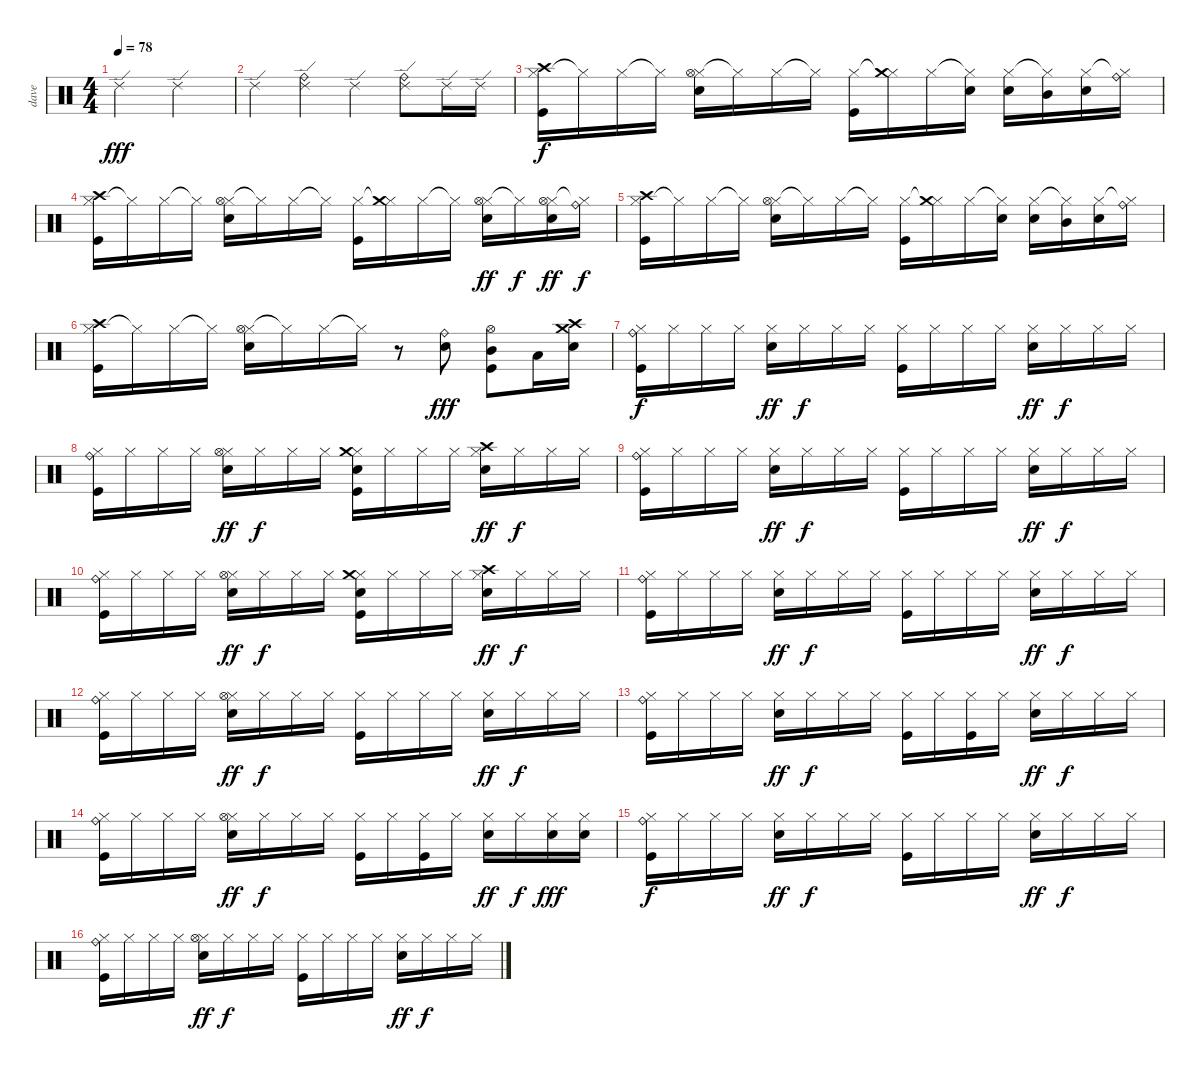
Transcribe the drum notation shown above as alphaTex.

\track ("dave" "dave") {instrument percussion}
\staff {score}
\articulation defaults
\ts (4 4)
\tempo 78
\clef neutral
\ks c "Ride (edge) 2".2{dy fff} "Ride (edge) 2".2
|
"Ride (edge) 2".4 ("Ride (edge) 2" "Ride (bell)").4 "Ride (edge) 2".4 ("Ride (edge) 2" "Ride (bell)").8 "Ride (edge) 2".16 "Ride (edge) 2".16 |
("Hi-Hat (closed)" "Crash high (hit)" "Kick (hit)").16{dy f} "Hi-Hat (closed)"{t}.16 "Hi-Hat (closed)".16 "Hi-Hat (closed)"{t}.16 ("Hi-Hat (closed)" "Hi-Hat (open)" "Snare (hit) 2").16 "Hi-Hat (closed)"{t}.16 "Hi-Hat (closed)".16 "Hi-Hat (closed)"{t}.16 ("Hi-Hat (closed)" "Kick (hit)").16 ("Hi-Hat (closed)"{t} "Crash medium (hit)").16 "Hi-Hat (closed)".16 ("Hi-Hat (closed)"{t} "Snare (hit) 2").16 ("Hi-Hat (closed)" "Snare (hit) 2").16 ("Hi-Hat (closed)"{t} "Mid Tom (hit)").16 ("Hi-Hat (closed)" "Snare (hit) 2").16 ("Hi-Hat (closed)"{t} "Ride (bell)").16 |
("Hi-Hat (closed)" "Crash high (hit)" "Kick (hit)").16 "Hi-Hat (closed)"{t}.16 "Hi-Hat (closed)".16 "Hi-Hat (closed)"{t}.16 ("Hi-Hat (closed)" "Hi-Hat (open)" "Snare (hit) 2").16 "Hi-Hat (closed)"{t}.16 "Hi-Hat (closed)".16 "Hi-Hat (closed)"{t}.16 ("Hi-Hat (closed)" "Kick (hit)").16 ("Hi-Hat (closed)"{t} "Crash medium (hit)").16 "Hi-Hat (closed)".16 "Hi-Hat (closed)"{t}.16 ("Hi-Hat (closed)" "Hi-Hat (open)" "Snare (hit) 2").16{dy ff} "Hi-Hat (closed)"{t}.16{dy f} ("Hi-Hat (closed)" "Hi-Hat (open)" "Snare (hit) 2").16{dy ff} ("Hi-Hat (closed)"{t} "Ride (bell)").16{dy f} |
("Hi-Hat (closed)" "Crash high (hit)" "Kick (hit)").16 "Hi-Hat (closed)"{t}.16 "Hi-Hat (closed)".16 "Hi-Hat (closed)"{t}.16 ("Hi-Hat (closed)" "Hi-Hat (open)" "Snare (hit) 2").16 "Hi-Hat (closed)"{t}.16 "Hi-Hat (closed)".16 "Hi-Hat (closed)"{t}.16 ("Hi-Hat (closed)" "Kick (hit)").16 ("Hi-Hat (closed)"{t} "Crash medium (hit)").16 "Hi-Hat (closed)".16 ("Hi-Hat (closed)"{t} "Snare (hit) 2").16 ("Hi-Hat (closed)" "Snare (hit) 2").16 ("Hi-Hat (closed)"{t} "Mid Tom (hit)").16 ("Hi-Hat (closed)" "Snare (hit) 2").16 ("Hi-Hat (closed)"{t} "Ride (bell)").16 |
("Hi-Hat (closed)" "Crash high (hit)" "Kick (hit)").16 "Hi-Hat (closed)"{t}.16 "Hi-Hat (closed)".16 "Hi-Hat (closed)"{t}.16 ("Hi-Hat (closed)" "Hi-Hat (open)" "Snare (hit) 2").16 "Hi-Hat (closed)"{t}.16 "Hi-Hat (closed)".16 "Hi-Hat (closed)"{t}.16 r.8 ("Electric Snare (hit)" "Ride (bell)").8{dy fff} ("Mid Tom (hit)" "Hi-Hat (open)" "Kick (hit)").8 "Low Tom (hit)".16 ("Snare (hit) 2" "Crash high (hit)" "Crash medium (hit)").16 |
("Hi-Hat (closed)" "Ride (bell)" "Kick (hit)").16{dy f} "Hi-Hat (closed)".16 "Hi-Hat (closed)".16 "Hi-Hat (closed)".16 ("Hi-Hat (closed)" "Snare (hit) 2").16{dy ff} "Hi-Hat (closed)".16{dy f} "Hi-Hat (closed)".16 "Hi-Hat (closed)".16 ("Hi-Hat (closed)" "Kick (hit)").16 "Hi-Hat (closed)".16 "Hi-Hat (closed)".16 "Hi-Hat (closed)".16 ("Hi-Hat (closed)" "Snare (hit) 2").16{dy ff} "Hi-Hat (closed)".16{dy f} "Hi-Hat (closed)".16 "Hi-Hat (closed)".16 |
("Hi-Hat (closed)" "Ride (bell)" "Kick (hit)").16 "Hi-Hat (closed)".16 "Hi-Hat (closed)".16 "Hi-Hat (closed)".16 ("Hi-Hat (closed)" "Hi-Hat (open)" "Snare (hit) 2").16{dy ff} "Hi-Hat (closed)".16{dy f} "Hi-Hat (closed)".16 "Hi-Hat (closed)".16 ("Hi-Hat (closed)" "Crash medium (hit)" "Snare (hit) 2" "Kick (hit)").16 "Hi-Hat (closed)".16 "Hi-Hat (closed)".16 "Hi-Hat (closed)".16 ("Hi-Hat (closed)" "Crash high (hit)" "Snare (hit) 2").16{dy ff} "Hi-Hat (closed)".16{dy f} "Hi-Hat (closed)".16 "Hi-Hat (closed)".16 |
("Hi-Hat (closed)" "Ride (bell)" "Kick (hit)").16 "Hi-Hat (closed)".16 "Hi-Hat (closed)".16 "Hi-Hat (closed)".16 ("Hi-Hat (closed)" "Snare (hit) 2").16{dy ff} "Hi-Hat (closed)".16{dy f} "Hi-Hat (closed)".16 "Hi-Hat (closed)".16 ("Hi-Hat (closed)" "Kick (hit)").16 "Hi-Hat (closed)".16 "Hi-Hat (closed)".16 "Hi-Hat (closed)".16 ("Hi-Hat (closed)" "Snare (hit) 2").16{dy ff} "Hi-Hat (closed)".16{dy f} "Hi-Hat (closed)".16 "Hi-Hat (closed)".16 |
("Hi-Hat (closed)" "Ride (bell)" "Kick (hit)").16 "Hi-Hat (closed)".16 "Hi-Hat (closed)".16 "Hi-Hat (closed)".16 ("Hi-Hat (closed)" "Hi-Hat (open)" "Snare (hit) 2").16{dy ff} "Hi-Hat (closed)".16{dy f} "Hi-Hat (closed)".16 "Hi-Hat (closed)".16 ("Hi-Hat (closed)" "Crash medium (hit)" "Snare (hit) 2" "Kick (hit)").16 "Hi-Hat (closed)".16 "Hi-Hat (closed)".16 "Hi-Hat (closed)".16 ("Hi-Hat (closed)" "Crash high (hit)" "Snare (hit) 2").16{dy ff} "Hi-Hat (closed)".16{dy f} "Hi-Hat (closed)".16 "Hi-Hat (closed)".16 |
("Hi-Hat (closed)" "Ride (bell)" "Kick (hit)").16 "Hi-Hat (closed)".16 "Hi-Hat (closed)".16 "Hi-Hat (closed)".16 ("Hi-Hat (closed)" "Snare (hit) 2").16{dy ff} "Hi-Hat (closed)".16{dy f} "Hi-Hat (closed)".16 "Hi-Hat (closed)".16 ("Hi-Hat (closed)" "Kick (hit)").16 "Hi-Hat (closed)".16 "Hi-Hat (closed)".16 "Hi-Hat (closed)".16 ("Hi-Hat (closed)" "Snare (hit) 2").16{dy ff} "Hi-Hat (closed)".16{dy f} "Hi-Hat (closed)".16 "Hi-Hat (closed)".16 |
("Hi-Hat (closed)" "Ride (bell)" "Kick (hit)").16 "Hi-Hat (closed)".16 "Hi-Hat (closed)".16 "Hi-Hat (closed)".16 ("Hi-Hat (closed)" "Hi-Hat (open)" "Snare (hit) 2").16{dy ff} "Hi-Hat (closed)".16{dy f} "Hi-Hat (closed)".16 "Hi-Hat (closed)".16 ("Hi-Hat (closed)" "Kick (hit)").16 "Hi-Hat (closed)".16 "Hi-Hat (closed)".16 "Hi-Hat (closed)".16 ("Hi-Hat (closed)" "Snare (hit) 2").16{dy ff} "Hi-Hat (closed)".16{dy f} "Hi-Hat (closed)".16 "Hi-Hat (closed)".16 |
("Hi-Hat (closed)" "Ride (bell)" "Kick (hit)").16 "Hi-Hat (closed)".16 "Hi-Hat (closed)".16 "Hi-Hat (closed)".16 ("Hi-Hat (closed)" "Snare (hit) 2").16{dy ff} "Hi-Hat (closed)".16{dy f} "Hi-Hat (closed)".16 "Hi-Hat (closed)".16 ("Hi-Hat (closed)" "Kick (hit)").16 "Hi-Hat (closed)".16 ("Hi-Hat (closed)" "Kick (hit)").16 "Hi-Hat (closed)".16 ("Hi-Hat (closed)" "Snare (hit) 2").16{dy ff} "Hi-Hat (closed)".16{dy f} "Hi-Hat (closed)".16 "Hi-Hat (closed)".16 |
("Hi-Hat (closed)" "Ride (bell)" "Kick (hit)").16 "Hi-Hat (closed)".16 "Hi-Hat (closed)".16 "Hi-Hat (closed)".16 ("Hi-Hat (closed)" "Hi-Hat (open)" "Snare (hit) 2").16{dy ff} "Hi-Hat (closed)".16{dy f} "Hi-Hat (closed)".16 "Hi-Hat (closed)".16 ("Hi-Hat (closed)" "Kick (hit)").16 "Hi-Hat (closed)".16 ("Hi-Hat (closed)" "Kick (hit)").16 "Hi-Hat (closed)".16 ("Hi-Hat (closed)" "Snare (hit) 2").16{dy ff} "Hi-Hat (closed)".16{dy f} ("Hi-Hat (closed)" "Snare (hit) 2").16{dy fff} ("Hi-Hat (closed)" "Snare (hit) 2").16 |
("Hi-Hat (closed)" "Ride (bell)" "Kick (hit)").16{dy f} "Hi-Hat (closed)".16 "Hi-Hat (closed)".16 "Hi-Hat (closed)".16 ("Hi-Hat (closed)" "Snare (hit) 2").16{dy ff} "Hi-Hat (closed)".16{dy f} "Hi-Hat (closed)".16 "Hi-Hat (closed)".16 ("Hi-Hat (closed)" "Kick (hit)").16 "Hi-Hat (closed)".16 "Hi-Hat (closed)".16 "Hi-Hat (closed)".16 ("Hi-Hat (closed)" "Snare (hit) 2").16{dy ff} "Hi-Hat (closed)".16{dy f} "Hi-Hat (closed)".16 "Hi-Hat (closed)".16 |
("Hi-Hat (closed)" "Ride (bell)" "Kick (hit)").16 "Hi-Hat (closed)".16 "Hi-Hat (closed)".16 "Hi-Hat (closed)".16 ("Hi-Hat (closed)" "Hi-Hat (open)" "Snare (hit) 2").16{dy ff} "Hi-Hat (closed)".16{dy f} "Hi-Hat (closed)".16 "Hi-Hat (closed)".16 ("Hi-Hat (closed)" "Kick (hit)").16 "Hi-Hat (closed)".16 "Hi-Hat (closed)".16 "Hi-Hat (closed)".16 ("Hi-Hat (closed)" "Snare (hit) 2").16{dy ff} "Hi-Hat (closed)".16{dy f} "Hi-Hat (closed)".16 "Hi-Hat (closed)".16
